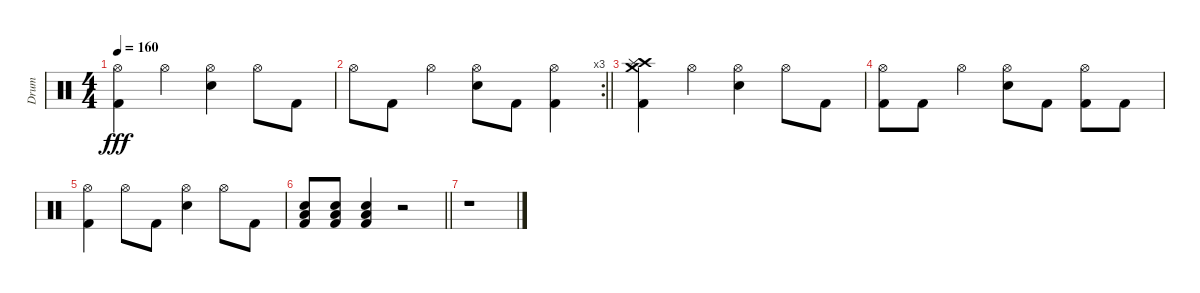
\track ("Drum" "Drum") {instrument percussion}
\staff {score}
\articulation defaults
\ts (4 4)
\tempo 160
\clef neutral
\ks c
("Hi-Hat (open)" "Kick (hit) 2").4{dy fff} "Hi-Hat (open)".4 ("Hi-Hat (open)" "Electric Snare (hit)").4 "Hi-Hat (open)".8 "Kick (hit) 2".8 |
\rc 3
\barLineRight lightlight "Hi-Hat (open)".8 "Kick (hit) 2".8 "Hi-Hat (open)".4
("Hi-Hat (open)" "Electric Snare (hit)").8 "Kick (hit) 2".8 ("Hi-Hat (open)" "Kick (hit) 2").4 |
("Crash high (hit)" "Crash medium (hit)" "Splash (hit)" "Kick (hit) 2").4 "Hi-Hat (open)".4 ("Hi-Hat (open)" "Electric Snare (hit)").4 "Hi-Hat (open)".8 "Kick (hit) 2".8 |
("Hi-Hat (open)" "Kick (hit) 2").8 "Kick (hit) 2".8 "Hi-Hat (open)".4 ("Hi-Hat (open)" "Electric Snare (hit)").8 "Kick (hit) 2".8 ("Hi-Hat (open)" "Kick (hit) 2").8 "Kick (hit) 2".8 |
("Hi-Hat (open)" "Kick (hit) 2").4 "Hi-Hat (open)".8 "Kick (hit) 2".8 ("Hi-Hat (open)" "Electric Snare (hit)").4 "Hi-Hat (open)".8 "Kick (hit) 2".8 |
\barLineRight lightlight
("Low Floor Tom (hit)" "Electric Snare (hit)" "Kick (hit) 2").8 ("Low Floor Tom (hit)" "Electric Snare (hit)" "Kick (hit) 2").8 ("Low Floor Tom (hit)" "Electric Snare (hit)" "Kick (hit) 2").4 r.2 |
r.1
